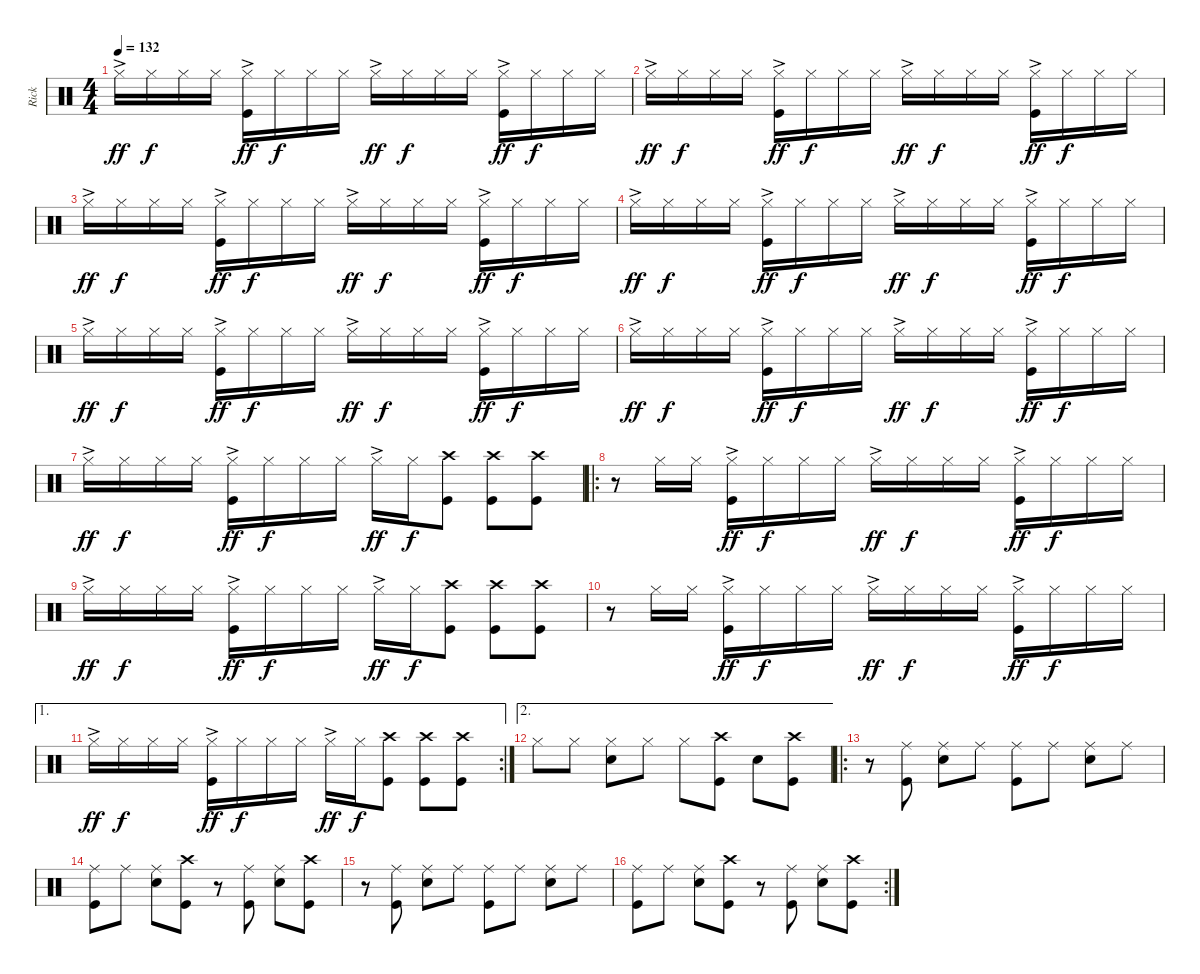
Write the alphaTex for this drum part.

\track ("Rick" "Rick") {instrument percussion}
\staff {score}
\articulation defaults
\ts (4 4)
\tempo 132
\clef neutral
\ks aminor "Hi-Hat (closed)"{ac}.16{dy ff} "Hi-Hat (closed)".16{dy f} "Hi-Hat (closed)".16 "Hi-Hat (closed)".16
("Hi-Hat (closed)"{ac} "Kick (hit)").16{dy ff} "Hi-Hat (closed)".16{dy f} "Hi-Hat (closed)".16 "Hi-Hat (closed)".16 "Hi-Hat (closed)"{ac}.16{dy ff} "Hi-Hat (closed)".16{dy f} "Hi-Hat (closed)".16 "Hi-Hat (closed)".16 ("Hi-Hat (closed)"{ac} "Kick (hit)").16{dy ff} "Hi-Hat (closed)".16{dy f} "Hi-Hat (closed)".16 "Hi-Hat (closed)".16 |
"Hi-Hat (closed)"{ac}.16{dy ff} "Hi-Hat (closed)".16{dy f} "Hi-Hat (closed)".16 "Hi-Hat (closed)".16 ("Hi-Hat (closed)"{ac} "Kick (hit)").16{dy ff} "Hi-Hat (closed)".16{dy f} "Hi-Hat (closed)".16 "Hi-Hat (closed)".16 "Hi-Hat (closed)"{ac}.16{dy ff} "Hi-Hat (closed)".16{dy f} "Hi-Hat (closed)".16 "Hi-Hat (closed)".16 ("Hi-Hat (closed)"{ac} "Kick (hit)").16{dy ff} "Hi-Hat (closed)".16{dy f} "Hi-Hat (closed)".16 "Hi-Hat (closed)".16 |
"Hi-Hat (closed)"{ac}.16{dy ff} "Hi-Hat (closed)".16{dy f} "Hi-Hat (closed)".16 "Hi-Hat (closed)".16 ("Hi-Hat (closed)"{ac} "Kick (hit)").16{dy ff} "Hi-Hat (closed)".16{dy f} "Hi-Hat (closed)".16 "Hi-Hat (closed)".16 "Hi-Hat (closed)"{ac}.16{dy ff} "Hi-Hat (closed)".16{dy f} "Hi-Hat (closed)".16 "Hi-Hat (closed)".16 ("Hi-Hat (closed)"{ac} "Kick (hit)").16{dy ff} "Hi-Hat (closed)".16{dy f} "Hi-Hat (closed)".16 "Hi-Hat (closed)".16 |
"Hi-Hat (closed)"{ac}.16{dy ff} "Hi-Hat (closed)".16{dy f} "Hi-Hat (closed)".16 "Hi-Hat (closed)".16 ("Hi-Hat (closed)"{ac} "Kick (hit)").16{dy ff} "Hi-Hat (closed)".16{dy f} "Hi-Hat (closed)".16 "Hi-Hat (closed)".16 "Hi-Hat (closed)"{ac}.16{dy ff} "Hi-Hat (closed)".16{dy f} "Hi-Hat (closed)".16 "Hi-Hat (closed)".16 ("Hi-Hat (closed)"{ac} "Kick (hit)").16{dy ff} "Hi-Hat (closed)".16{dy f} "Hi-Hat (closed)".16 "Hi-Hat (closed)".16 |
"Hi-Hat (closed)"{ac}.16{dy ff} "Hi-Hat (closed)".16{dy f} "Hi-Hat (closed)".16 "Hi-Hat (closed)".16 ("Hi-Hat (closed)"{ac} "Kick (hit)").16{dy ff} "Hi-Hat (closed)".16{dy f} "Hi-Hat (closed)".16 "Hi-Hat (closed)".16 "Hi-Hat (closed)"{ac}.16{dy ff} "Hi-Hat (closed)".16{dy f} "Hi-Hat (closed)".16 "Hi-Hat (closed)".16 ("Hi-Hat (closed)"{ac} "Kick (hit)").16{dy ff} "Hi-Hat (closed)".16{dy f} "Hi-Hat (closed)".16 "Hi-Hat (closed)".16 |
"Hi-Hat (closed)"{ac}.16{dy ff} "Hi-Hat (closed)".16{dy f} "Hi-Hat (closed)".16 "Hi-Hat (closed)".16 ("Hi-Hat (closed)"{ac} "Kick (hit)").16{dy ff} "Hi-Hat (closed)".16{dy f} "Hi-Hat (closed)".16 "Hi-Hat (closed)".16 "Hi-Hat (closed)"{ac}.16{dy ff} "Hi-Hat (closed)".16{dy f} "Hi-Hat (closed)".16 "Hi-Hat (closed)".16 ("Hi-Hat (closed)"{ac} "Kick (hit)").16{dy ff} "Hi-Hat (closed)".16{dy f} "Hi-Hat (closed)".16 "Hi-Hat (closed)".16 |
"Hi-Hat (closed)"{ac}.16{dy ff} "Hi-Hat (closed)".16{dy f} "Hi-Hat (closed)".16 "Hi-Hat (closed)".16 ("Hi-Hat (closed)"{ac} "Kick (hit)").16{dy ff} "Hi-Hat (closed)".16{dy f} "Hi-Hat (closed)".16 "Hi-Hat (closed)".16 "Hi-Hat (closed)"{ac}.16{dy ff} "Hi-Hat (closed)".16{dy f} ("Crash high (hit)" "Kick (hit)").8 ("Crash high (hit)" "Kick (hit)").8 ("Crash high (hit)" "Kick (hit)").8 |
\ro
r.8 "Hi-Hat (closed)".16 "Hi-Hat (closed)".16 ("Hi-Hat (closed)"{ac} "Kick (hit)").16{dy ff} "Hi-Hat (closed)".16{dy f} "Hi-Hat (closed)".16 "Hi-Hat (closed)".16 "Hi-Hat (closed)"{ac}.16{dy ff} "Hi-Hat (closed)".16{dy f} "Hi-Hat (closed)".16 "Hi-Hat (closed)".16 ("Hi-Hat (closed)"{ac} "Kick (hit)").16{dy ff} "Hi-Hat (closed)".16{dy f} "Hi-Hat (closed)".16 "Hi-Hat (closed)".16 |
"Hi-Hat (closed)"{ac}.16{dy ff} "Hi-Hat (closed)".16{dy f} "Hi-Hat (closed)".16 "Hi-Hat (closed)".16 ("Hi-Hat (closed)"{ac} "Kick (hit)").16{dy ff} "Hi-Hat (closed)".16{dy f} "Hi-Hat (closed)".16 "Hi-Hat (closed)".16 "Hi-Hat (closed)"{ac}.16{dy ff} "Hi-Hat (closed)".16{dy f} ("Crash high (hit)" "Kick (hit)").8 ("Crash high (hit)" "Kick (hit)").8 ("Crash high (hit)" "Kick (hit)").8 |
r.8 "Hi-Hat (closed)".16 "Hi-Hat (closed)".16 ("Hi-Hat (closed)"{ac} "Kick (hit)").16{dy ff} "Hi-Hat (closed)".16{dy f} "Hi-Hat (closed)".16 "Hi-Hat (closed)".16 "Hi-Hat (closed)"{ac}.16{dy ff} "Hi-Hat (closed)".16{dy f} "Hi-Hat (closed)".16 "Hi-Hat (closed)".16 ("Hi-Hat (closed)"{ac} "Kick (hit)").16{dy ff} "Hi-Hat (closed)".16{dy f} "Hi-Hat (closed)".16 "Hi-Hat (closed)".16 |
\ae 1
\rc 2 "Hi-Hat (closed)"{ac}.16{dy ff} "Hi-Hat (closed)".16{dy f} "Hi-Hat (closed)".16 "Hi-Hat (closed)".16
("Hi-Hat (closed)"{ac} "Kick (hit)").16{dy ff} "Hi-Hat (closed)".16{dy f} "Hi-Hat (closed)".16 "Hi-Hat (closed)".16 "Hi-Hat (closed)"{ac}.16{dy ff} "Hi-Hat (closed)".16{dy f} ("Crash high (hit)" "Kick (hit)").8 ("Crash high (hit)" "Kick (hit)").8 ("Crash high (hit)" "Kick (hit)").8 |
\ae 2 "Hi-Hat (closed)".8 "Hi-Hat (closed)".8
("Hi-Hat (closed)" "Snare (hit) 2").8 "Hi-Hat (closed)".8 "Hi-Hat (closed)".8 ("Crash high (hit)" "Kick (hit)").8 "Snare (hit) 2".8 ("Crash high (hit)" "Kick (hit)").8 |
\ro
r.8 ("Ride (middle)" "Kick (hit)").8 ("Ride (middle)" "Snare (hit) 2").8 "Ride (middle)".8 ("Ride (middle)" "Kick (hit)").8 "Ride (middle)".8 ("Ride (middle)" "Snare (hit) 2").8 "Ride (middle)".8 |
("Ride (middle)" "Kick (hit)").8 "Ride (middle)".8 ("Ride (middle)" "Snare (hit) 2").8 ("Crash high (hit)" "Kick (hit)").8 r.8 ("Ride (middle)" "Kick (hit)").8 ("Ride (middle)" "Snare (hit) 2").8 ("Crash high (hit)" "Kick (hit)").8 |
r.8 ("Ride (middle)" "Kick (hit)").8 ("Ride (middle)" "Snare (hit) 2").8 "Ride (middle)".8 ("Ride (middle)" "Kick (hit)").8 "Ride (middle)".8 ("Ride (middle)" "Snare (hit) 2").8 "Ride (middle)".8 |
\rc 2
("Ride (middle)" "Kick (hit)").8 "Ride (middle)".8 ("Ride (middle)" "Snare (hit) 2").8 ("Crash high (hit)" "Kick (hit)").8 r.8 ("Ride (middle)" "Kick (hit)").8 ("Ride (middle)" "Snare (hit) 2").8 ("Crash high (hit)" "Kick (hit)").8
